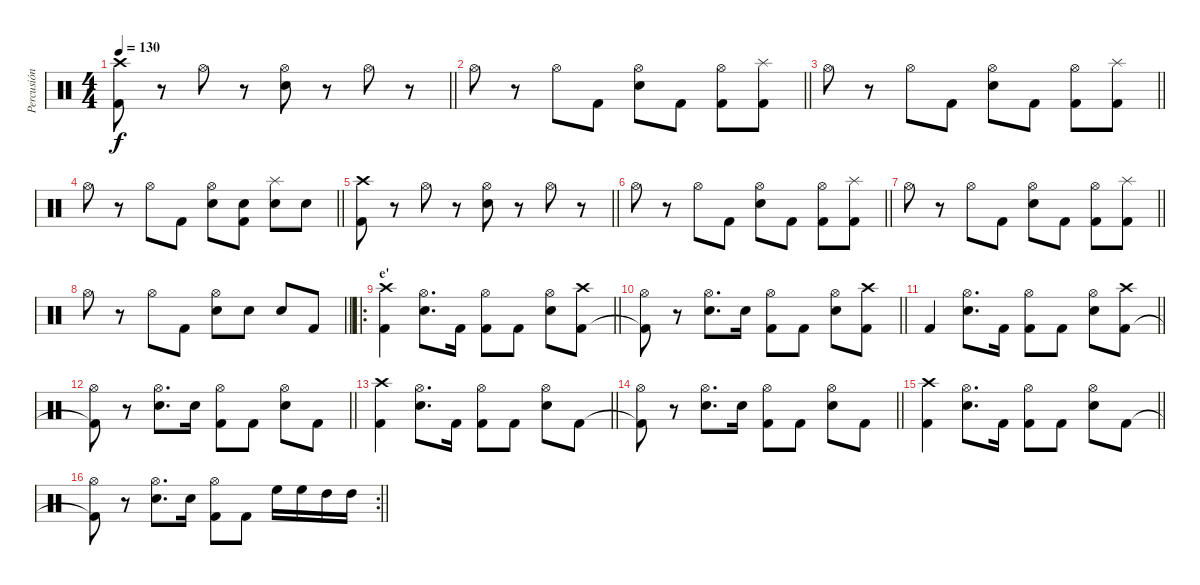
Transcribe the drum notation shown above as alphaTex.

\track ("Percusión" "Percusión") {mute instrument percussion}
\staff {score}
\articulation defaults
\ts (4 4)
\tempo 130
\clef neutral
\barLineRight lightlight
\ks c
("Kick (hit) 2" "Crash high (hit)").8{dy f} r.8 "Hi-Hat (open)".8 r.8 ("Electric Snare (hit)" "Hi-Hat (open)").8 r.8 "Hi-Hat (open)".8 r.8 |
\barLineRight lightlight "Hi-Hat (open)".8
r.8 "Hi-Hat (open)".8 "Kick (hit) 2".8 ("Electric Snare (hit)" "Hi-Hat (open)").8 "Kick (hit) 2".8 ("Hi-Hat (open)" "Kick (hit) 2").8 ("Splash (hit)" "Kick (hit) 2").8 |
\barLineRight lightlight "Hi-Hat (open)".8
r.8 "Hi-Hat (open)".8 "Kick (hit) 2".8 ("Electric Snare (hit)" "Hi-Hat (open)").8 "Kick (hit) 2".8 ("Hi-Hat (open)" "Kick (hit) 2").8 ("Splash (hit)" "Kick (hit) 2").8 |
\barLineRight lightlight "Hi-Hat (open)".8
r.8 "Hi-Hat (open)".8 "Kick (hit) 2".8 ("Electric Snare (hit)" "Hi-Hat (open)").8 ("Kick (hit) 2" "Electric Snare (hit)").8 ("Splash (hit)" "Electric Snare (hit)").8 "Electric Snare (hit)".8 |
\barLineRight lightlight
("Kick (hit) 2" "Crash high (hit)").8 r.8 "Hi-Hat (open)".8 r.8 ("Electric Snare (hit)" "Hi-Hat (open)").8 r.8 "Hi-Hat (open)".8 r.8 |
\barLineRight lightlight "Hi-Hat (open)".8
r.8 "Hi-Hat (open)".8 "Kick (hit) 2".8 ("Electric Snare (hit)" "Hi-Hat (open)").8 "Kick (hit) 2".8 ("Hi-Hat (open)" "Kick (hit) 2").8 ("Splash (hit)" "Kick (hit) 2").8 |
\barLineRight lightlight "Hi-Hat (open)".8
r.8 "Hi-Hat (open)".8 "Kick (hit) 2".8 ("Electric Snare (hit)" "Hi-Hat (open)").8 "Kick (hit) 2".8 ("Hi-Hat (open)" "Kick (hit) 2").8 ("Splash (hit)" "Kick (hit) 2").8 |
\barLineRight lightlight "Hi-Hat (open)".8
r.8 "Hi-Hat (open)".8 "Kick (hit) 2".8 ("Electric Snare (hit)" "Hi-Hat (open)").8 "Electric Snare (hit)".8 "Electric Snare (hit)".8 "Kick (hit) 2".8 |
\ro
\section ("" "e'")
\barLineRight lightlight
("Crash high (hit)" "Kick (hit) 2").4 ("Electric Snare (hit)" "Hi-Hat (open)").8{d} "Kick (hit) 2".16 ("Kick (hit) 2" "Hi-Hat (open)").8 "Kick (hit) 2".8 ("Electric Snare (hit)" "Hi-Hat (open)").8 ("Kick (hit) 2" "Crash high (hit)").8 |
\barLineRight lightlight
("Kick (hit) 2"{t} "Hi-Hat (open)").8 r.8 ("Electric Snare (hit)" "Hi-Hat (open)").8{d} "Electric Snare (hit)".16 ("Kick (hit) 2" "Hi-Hat (open)").8 "Kick (hit) 2".8 ("Electric Snare (hit)" "Hi-Hat (open)").8 ("Kick (hit) 2" "Crash high (hit)").8 |
\barLineRight lightlight "Kick (hit) 2".4
("Electric Snare (hit)" "Hi-Hat (open)").8{d} "Kick (hit) 2".16 ("Kick (hit) 2" "Hi-Hat (open)").8 "Kick (hit) 2".8 ("Electric Snare (hit)" "Hi-Hat (open)").8 ("Kick (hit) 2" "Crash high (hit)").8 |
\barLineRight lightlight
("Kick (hit) 2"{t} "Hi-Hat (open)").8 r.8 ("Electric Snare (hit)" "Hi-Hat (open)").8{d} "Electric Snare (hit)".16 ("Kick (hit) 2" "Hi-Hat (open)").8 "Kick (hit) 2".8 ("Electric Snare (hit)" "Hi-Hat (open)").8 "Kick (hit) 2".8 |
\barLineRight lightlight
("Crash high (hit)" "Kick (hit) 2").4 ("Electric Snare (hit)" "Hi-Hat (open)").8{d} "Kick (hit) 2".16 ("Kick (hit) 2" "Hi-Hat (open)").8 "Kick (hit) 2".8 ("Electric Snare (hit)" "Hi-Hat (open)").8 "Kick (hit) 2".8 |
\barLineRight lightlight
("Kick (hit) 2"{t} "Hi-Hat (open)").8 r.8 ("Electric Snare (hit)" "Hi-Hat (open)").8{d} "Electric Snare (hit)".16 ("Kick (hit) 2" "Hi-Hat (open)").8 "Kick (hit) 2".8 ("Electric Snare (hit)" "Hi-Hat (open)").8 "Kick (hit) 2".8 |
\barLineRight lightlight
("Crash high (hit)" "Kick (hit) 2").4 ("Electric Snare (hit)" "Hi-Hat (open)").8{d} "Kick (hit) 2".16 ("Kick (hit) 2" "Hi-Hat (open)").8 "Kick (hit) 2".8 ("Electric Snare (hit)" "Hi-Hat (open)").8 "Kick (hit) 2".8 |
\rc 2
\barLineRight lightlight
("Kick (hit) 2"{t} "Hi-Hat (open)").8 r.8 ("Electric Snare (hit)" "Hi-Hat (open)").8{d} "Electric Snare (hit)".16 ("Kick (hit) 2" "Hi-Hat (open)").8 "Kick (hit) 2".8 "High Floor Tom (hit)".16 "High Floor Tom (hit)".16 "High Tom (hit)".16 "High Tom (hit)".16
